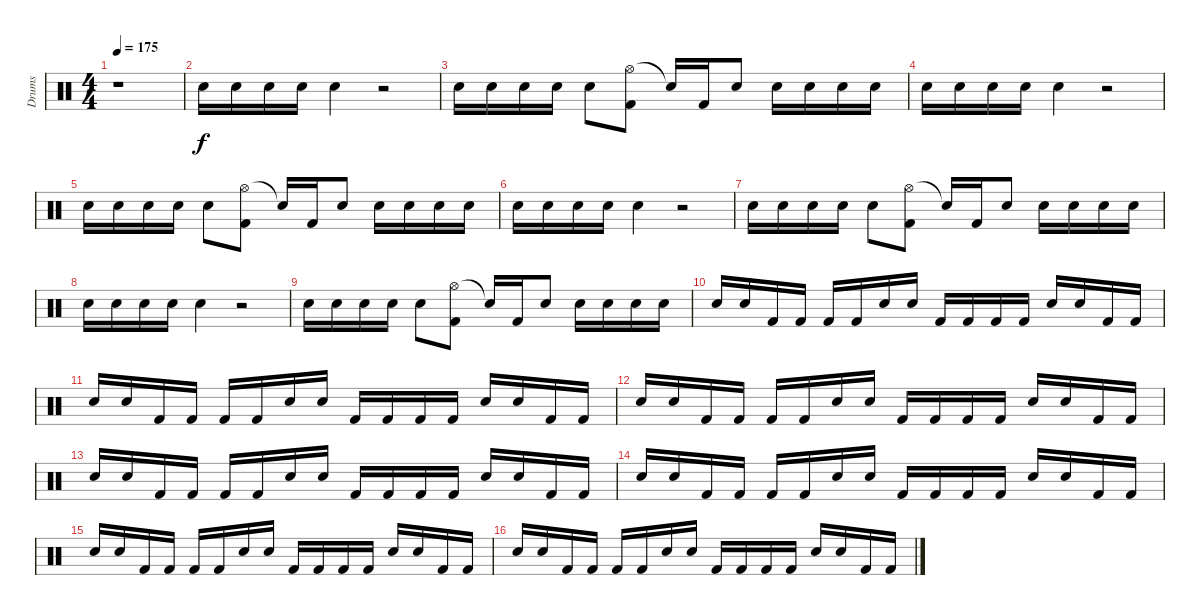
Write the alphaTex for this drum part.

\track ("Drums" "Drums") {instrument percussion}
\staff {score}
\articulation defaults
\ts (4 4)
\tempo 175
\clef neutral
\ks c
r.1{dy f} |
"Snare (hit) 2".16 "Snare (hit) 2".16 "Snare (hit) 2".16 "Snare (hit) 2".16 "Snare (hit) 2".4 r.2 |
"Snare (hit) 2".16 "Snare (hit) 2".16 "Snare (hit) 2".16 "Snare (hit) 2".16 "Snare (hit) 2".8 ("Hi-Hat (open)" "Kick (hit) 2").8 "Snare (hit)"{t}.16 "Kick (hit) 2".16 "Snare (hit) 2".8 "Snare (hit) 2".16 "Snare (hit) 2".16 "Snare (hit) 2".16 "Snare (hit) 2".16 |
"Snare (hit) 2".16 "Snare (hit) 2".16 "Snare (hit) 2".16 "Snare (hit) 2".16 "Snare (hit) 2".4 r.2 |
"Snare (hit) 2".16 "Snare (hit) 2".16 "Snare (hit) 2".16 "Snare (hit) 2".16 "Snare (hit) 2".8 ("Hi-Hat (open)" "Kick (hit) 2").8 "Snare (hit)"{t}.16 "Kick (hit) 2".16 "Snare (hit) 2".8 "Snare (hit) 2".16 "Snare (hit) 2".16 "Snare (hit) 2".16 "Snare (hit) 2".16 |
"Snare (hit) 2".16 "Snare (hit) 2".16 "Snare (hit) 2".16 "Snare (hit) 2".16 "Snare (hit) 2".4 r.2 |
"Snare (hit) 2".16 "Snare (hit) 2".16 "Snare (hit) 2".16 "Snare (hit) 2".16 "Snare (hit) 2".8 ("Hi-Hat (open)" "Kick (hit) 2").8 "Snare (hit)"{t}.16 "Kick (hit) 2".16 "Snare (hit) 2".8 "Snare (hit) 2".16 "Snare (hit) 2".16 "Snare (hit) 2".16 "Snare (hit) 2".16 |
"Snare (hit) 2".16 "Snare (hit) 2".16 "Snare (hit) 2".16 "Snare (hit) 2".16 "Snare (hit) 2".4 r.2 |
"Snare (hit) 2".16 "Snare (hit) 2".16 "Snare (hit) 2".16 "Snare (hit) 2".16 "Snare (hit) 2".8 ("Hi-Hat (open)" "Kick (hit) 2").8 "Snare (hit)"{t}.16 "Kick (hit) 2".16 "Snare (hit) 2".8 "Snare (hit) 2".16 "Snare (hit) 2".16 "Snare (hit) 2".16 "Snare (hit) 2".16 |
"Snare (hit) 2".16 "Snare (hit) 2".16 "Kick (hit) 2".16 "Kick (hit) 2".16 "Kick (hit) 2".16 "Kick (hit) 2".16 "Snare (hit) 2".16 "Snare (hit) 2".16 "Kick (hit) 2".16 "Kick (hit) 2".16 "Kick (hit) 2".16 "Kick (hit) 2".16 "Snare (hit) 2".16 "Snare (hit) 2".16 "Kick (hit) 2".16 "Kick (hit) 2".16 |
"Snare (hit) 2".16 "Snare (hit) 2".16 "Kick (hit) 2".16 "Kick (hit) 2".16 "Kick (hit) 2".16 "Kick (hit) 2".16 "Snare (hit) 2".16 "Snare (hit) 2".16 "Kick (hit) 2".16 "Kick (hit) 2".16 "Kick (hit) 2".16 "Kick (hit) 2".16 "Snare (hit) 2".16 "Snare (hit) 2".16 "Kick (hit) 2".16 "Kick (hit) 2".16 |
"Snare (hit) 2".16 "Snare (hit) 2".16 "Kick (hit) 2".16 "Kick (hit) 2".16 "Kick (hit) 2".16 "Kick (hit) 2".16 "Snare (hit) 2".16 "Snare (hit) 2".16 "Kick (hit) 2".16 "Kick (hit) 2".16 "Kick (hit) 2".16 "Kick (hit) 2".16 "Snare (hit) 2".16 "Snare (hit) 2".16 "Kick (hit) 2".16 "Kick (hit) 2".16 |
"Snare (hit) 2".16 "Snare (hit) 2".16 "Kick (hit) 2".16 "Kick (hit) 2".16 "Kick (hit) 2".16 "Kick (hit) 2".16 "Snare (hit) 2".16 "Snare (hit) 2".16 "Kick (hit) 2".16 "Kick (hit) 2".16 "Kick (hit) 2".16 "Kick (hit) 2".16 "Snare (hit) 2".16 "Snare (hit) 2".16 "Kick (hit) 2".16 "Kick (hit) 2".16 |
"Snare (hit) 2".16 "Snare (hit) 2".16 "Kick (hit) 2".16 "Kick (hit) 2".16 "Kick (hit) 2".16 "Kick (hit) 2".16 "Snare (hit) 2".16 "Snare (hit) 2".16 "Kick (hit) 2".16 "Kick (hit) 2".16 "Kick (hit) 2".16 "Kick (hit) 2".16 "Snare (hit) 2".16 "Snare (hit) 2".16 "Kick (hit) 2".16 "Kick (hit) 2".16 |
"Snare (hit) 2".16 "Snare (hit) 2".16 "Kick (hit) 2".16 "Kick (hit) 2".16 "Kick (hit) 2".16 "Kick (hit) 2".16 "Snare (hit) 2".16 "Snare (hit) 2".16 "Kick (hit) 2".16 "Kick (hit) 2".16 "Kick (hit) 2".16 "Kick (hit) 2".16 "Snare (hit) 2".16 "Snare (hit) 2".16 "Kick (hit) 2".16 "Kick (hit) 2".16 |
"Snare (hit) 2".16 "Snare (hit) 2".16 "Kick (hit) 2".16 "Kick (hit) 2".16 "Kick (hit) 2".16 "Kick (hit) 2".16 "Snare (hit) 2".16 "Snare (hit) 2".16 "Kick (hit) 2".16 "Kick (hit) 2".16 "Kick (hit) 2".16 "Kick (hit) 2".16 "Snare (hit) 2".16 "Snare (hit) 2".16 "Kick (hit) 2".16 "Kick (hit) 2".16
